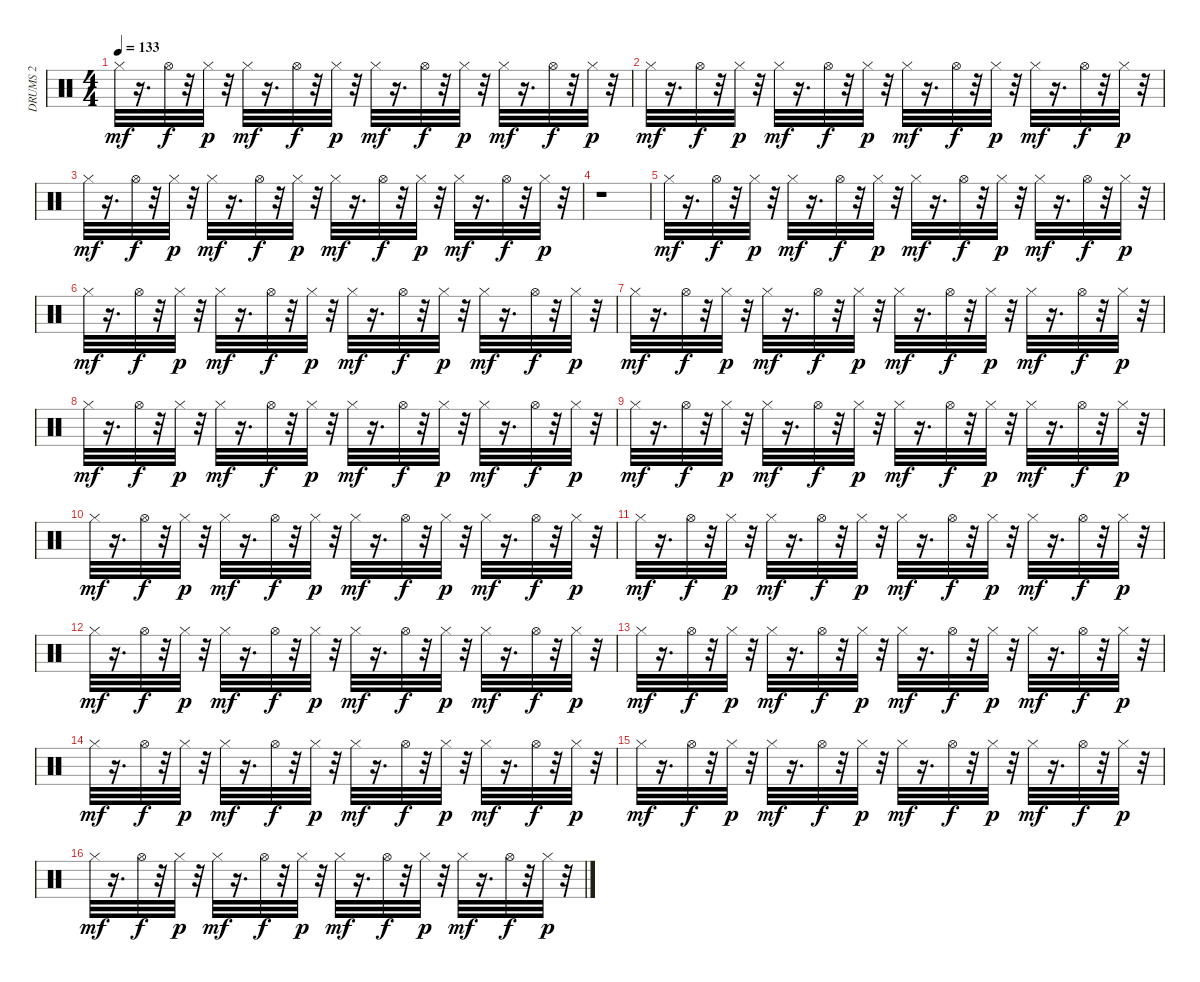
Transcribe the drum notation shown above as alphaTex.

\track ("DRUMS 2                             " "DRUMS 2   ") {instrument percussion}
\staff {score}
\articulation defaults
\ts (4 4)
\tempo 133
\clef neutral
\ks c "Hi-Hat (closed)".32{dy mf}
r.16{d} "Hi-Hat (open)".32{dy f} r.32 "Hi-Hat (closed)".32{dy p} r.32 "Hi-Hat (closed)".32{dy mf} r.16{d} "Hi-Hat (open)".32{dy f} r.32 "Hi-Hat (closed)".32{dy p} r.32 "Hi-Hat (closed)".32{dy mf} r.16{d} "Hi-Hat (open)".32{dy f} r.32 "Hi-Hat (closed)".32{dy p} r.32 "Hi-Hat (closed)".32{dy mf} r.16{d} "Hi-Hat (open)".32{dy f} r.32 "Hi-Hat (closed)".32{dy p} r.32 |
"Hi-Hat (closed)".32{dy mf} r.16{d} "Hi-Hat (open)".32{dy f} r.32 "Hi-Hat (closed)".32{dy p} r.32 "Hi-Hat (closed)".32{dy mf} r.16{d} "Hi-Hat (open)".32{dy f} r.32 "Hi-Hat (closed)".32{dy p} r.32 "Hi-Hat (closed)".32{dy mf} r.16{d} "Hi-Hat (open)".32{dy f} r.32 "Hi-Hat (closed)".32{dy p} r.32 "Hi-Hat (closed)".32{dy mf} r.16{d} "Hi-Hat (open)".32{dy f} r.32 "Hi-Hat (closed)".32{dy p} r.32 |
"Hi-Hat (closed)".32{dy mf} r.16{d} "Hi-Hat (open)".32{dy f} r.32 "Hi-Hat (closed)".32{dy p} r.32 "Hi-Hat (closed)".32{dy mf} r.16{d} "Hi-Hat (open)".32{dy f} r.32 "Hi-Hat (closed)".32{dy p} r.32 "Hi-Hat (closed)".32{dy mf} r.16{d} "Hi-Hat (open)".32{dy f} r.32 "Hi-Hat (closed)".32{dy p} r.32 "Hi-Hat (closed)".32{dy mf} r.16{d} "Hi-Hat (open)".32{dy f} r.32 "Hi-Hat (closed)".32{dy p} r.32 |
r.1 |
"Hi-Hat (closed)".32{dy mf} r.16{d} "Hi-Hat (open)".32{dy f} r.32 "Hi-Hat (closed)".32{dy p} r.32 "Hi-Hat (closed)".32{dy mf} r.16{d} "Hi-Hat (open)".32{dy f} r.32 "Hi-Hat (closed)".32{dy p} r.32 "Hi-Hat (closed)".32{dy mf} r.16{d} "Hi-Hat (open)".32{dy f} r.32 "Hi-Hat (closed)".32{dy p} r.32 "Hi-Hat (closed)".32{dy mf} r.16{d} "Hi-Hat (open)".32{dy f} r.32 "Hi-Hat (closed)".32{dy p} r.32 |
"Hi-Hat (closed)".32{dy mf} r.16{d} "Hi-Hat (open)".32{dy f} r.32 "Hi-Hat (closed)".32{dy p} r.32 "Hi-Hat (closed)".32{dy mf} r.16{d} "Hi-Hat (open)".32{dy f} r.32 "Hi-Hat (closed)".32{dy p} r.32 "Hi-Hat (closed)".32{dy mf} r.16{d} "Hi-Hat (open)".32{dy f} r.32 "Hi-Hat (closed)".32{dy p} r.32 "Hi-Hat (closed)".32{dy mf} r.16{d} "Hi-Hat (open)".32{dy f} r.32 "Hi-Hat (closed)".32{dy p} r.32 |
"Hi-Hat (closed)".32{dy mf} r.16{d} "Hi-Hat (open)".32{dy f} r.32 "Hi-Hat (closed)".32{dy p} r.32 "Hi-Hat (closed)".32{dy mf} r.16{d} "Hi-Hat (open)".32{dy f} r.32 "Hi-Hat (closed)".32{dy p} r.32 "Hi-Hat (closed)".32{dy mf} r.16{d} "Hi-Hat (open)".32{dy f} r.32 "Hi-Hat (closed)".32{dy p} r.32 "Hi-Hat (closed)".32{dy mf} r.16{d} "Hi-Hat (open)".32{dy f} r.32 "Hi-Hat (closed)".32{dy p} r.32 |
"Hi-Hat (closed)".32{dy mf} r.16{d} "Hi-Hat (open)".32{dy f} r.32 "Hi-Hat (closed)".32{dy p} r.32 "Hi-Hat (closed)".32{dy mf} r.16{d} "Hi-Hat (open)".32{dy f} r.32 "Hi-Hat (closed)".32{dy p} r.32 "Hi-Hat (closed)".32{dy mf} r.16{d} "Hi-Hat (open)".32{dy f} r.32 "Hi-Hat (closed)".32{dy p} r.32 "Hi-Hat (closed)".32{dy mf} r.16{d} "Hi-Hat (open)".32{dy f} r.32 "Hi-Hat (closed)".32{dy p} r.32 |
"Hi-Hat (closed)".32{dy mf} r.16{d} "Hi-Hat (open)".32{dy f} r.32 "Hi-Hat (closed)".32{dy p} r.32 "Hi-Hat (closed)".32{dy mf} r.16{d} "Hi-Hat (open)".32{dy f} r.32 "Hi-Hat (closed)".32{dy p} r.32 "Hi-Hat (closed)".32{dy mf} r.16{d} "Hi-Hat (open)".32{dy f} r.32 "Hi-Hat (closed)".32{dy p} r.32 "Hi-Hat (closed)".32{dy mf} r.16{d} "Hi-Hat (open)".32{dy f} r.32 "Hi-Hat (closed)".32{dy p} r.32 |
"Hi-Hat (closed)".32{dy mf} r.16{d} "Hi-Hat (open)".32{dy f} r.32 "Hi-Hat (closed)".32{dy p} r.32 "Hi-Hat (closed)".32{dy mf} r.16{d} "Hi-Hat (open)".32{dy f} r.32 "Hi-Hat (closed)".32{dy p} r.32 "Hi-Hat (closed)".32{dy mf} r.16{d} "Hi-Hat (open)".32{dy f} r.32 "Hi-Hat (closed)".32{dy p} r.32 "Hi-Hat (closed)".32{dy mf} r.16{d} "Hi-Hat (open)".32{dy f} r.32 "Hi-Hat (closed)".32{dy p} r.32 |
"Hi-Hat (closed)".32{dy mf} r.16{d} "Hi-Hat (open)".32{dy f} r.32 "Hi-Hat (closed)".32{dy p} r.32 "Hi-Hat (closed)".32{dy mf} r.16{d} "Hi-Hat (open)".32{dy f} r.32 "Hi-Hat (closed)".32{dy p} r.32 "Hi-Hat (closed)".32{dy mf} r.16{d} "Hi-Hat (open)".32{dy f} r.32 "Hi-Hat (closed)".32{dy p} r.32 "Hi-Hat (closed)".32{dy mf} r.16{d} "Hi-Hat (open)".32{dy f} r.32 "Hi-Hat (closed)".32{dy p} r.32 |
"Hi-Hat (closed)".32{dy mf} r.16{d} "Hi-Hat (open)".32{dy f} r.32 "Hi-Hat (closed)".32{dy p} r.32 "Hi-Hat (closed)".32{dy mf} r.16{d} "Hi-Hat (open)".32{dy f} r.32 "Hi-Hat (closed)".32{dy p} r.32 "Hi-Hat (closed)".32{dy mf} r.16{d} "Hi-Hat (open)".32{dy f} r.32 "Hi-Hat (closed)".32{dy p} r.32 "Hi-Hat (closed)".32{dy mf} r.16{d} "Hi-Hat (open)".32{dy f} r.32 "Hi-Hat (closed)".32{dy p} r.32 |
"Hi-Hat (closed)".32{dy mf} r.16{d} "Hi-Hat (open)".32{dy f} r.32 "Hi-Hat (closed)".32{dy p} r.32 "Hi-Hat (closed)".32{dy mf} r.16{d} "Hi-Hat (open)".32{dy f} r.32 "Hi-Hat (closed)".32{dy p} r.32 "Hi-Hat (closed)".32{dy mf} r.16{d} "Hi-Hat (open)".32{dy f} r.32 "Hi-Hat (closed)".32{dy p} r.32 "Hi-Hat (closed)".32{dy mf} r.16{d} "Hi-Hat (open)".32{dy f} r.32 "Hi-Hat (closed)".32{dy p} r.32 |
"Hi-Hat (closed)".32{dy mf} r.16{d} "Hi-Hat (open)".32{dy f} r.32 "Hi-Hat (closed)".32{dy p} r.32 "Hi-Hat (closed)".32{dy mf} r.16{d} "Hi-Hat (open)".32{dy f} r.32 "Hi-Hat (closed)".32{dy p} r.32 "Hi-Hat (closed)".32{dy mf} r.16{d} "Hi-Hat (open)".32{dy f} r.32 "Hi-Hat (closed)".32{dy p} r.32 "Hi-Hat (closed)".32{dy mf} r.16{d} "Hi-Hat (open)".32{dy f} r.32 "Hi-Hat (closed)".32{dy p} r.32 |
"Hi-Hat (closed)".32{dy mf} r.16{d} "Hi-Hat (open)".32{dy f} r.32 "Hi-Hat (closed)".32{dy p} r.32 "Hi-Hat (closed)".32{dy mf} r.16{d} "Hi-Hat (open)".32{dy f} r.32 "Hi-Hat (closed)".32{dy p} r.32 "Hi-Hat (closed)".32{dy mf} r.16{d} "Hi-Hat (open)".32{dy f} r.32 "Hi-Hat (closed)".32{dy p} r.32 "Hi-Hat (closed)".32{dy mf} r.16{d} "Hi-Hat (open)".32{dy f} r.32 "Hi-Hat (closed)".32{dy p} r.32 |
"Hi-Hat (closed)".32{dy mf} r.16{d} "Hi-Hat (open)".32{dy f} r.32 "Hi-Hat (closed)".32{dy p} r.32 "Hi-Hat (closed)".32{dy mf} r.16{d} "Hi-Hat (open)".32{dy f} r.32 "Hi-Hat (closed)".32{dy p} r.32 "Hi-Hat (closed)".32{dy mf} r.16{d} "Hi-Hat (open)".32{dy f} r.32 "Hi-Hat (closed)".32{dy p} r.32 "Hi-Hat (closed)".32{dy mf} r.16{d} "Hi-Hat (open)".32{dy f} r.32 "Hi-Hat (closed)".32{dy p} r.32
